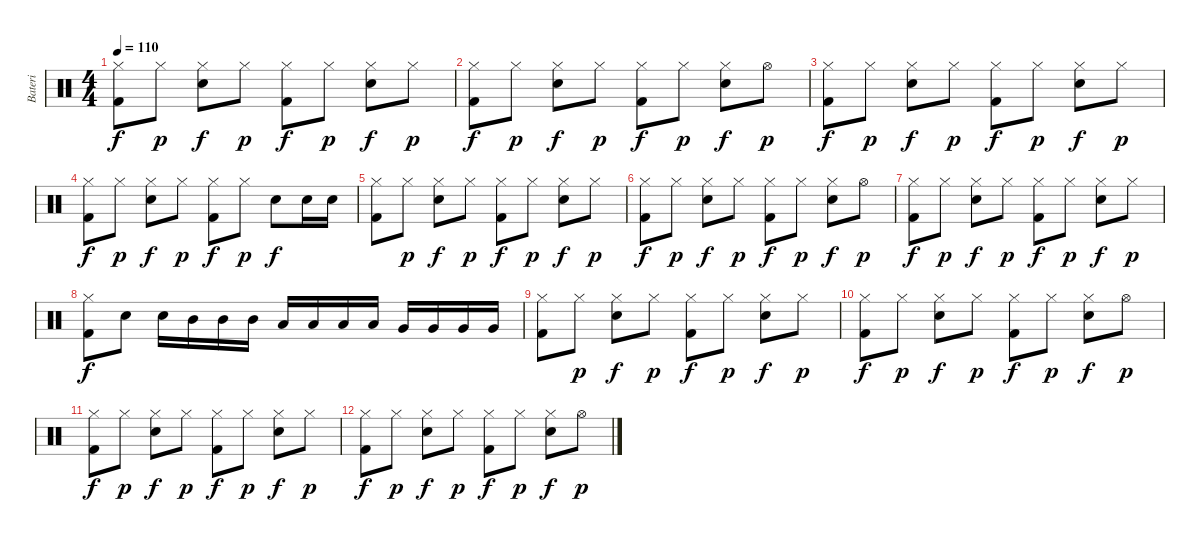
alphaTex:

\track ("Bateri" "Bateri") {instrument percussion}
\staff {score}
\articulation defaults
\ts (4 4)
\tempo 110
\clef neutral
\ks c
("Hi-Hat (closed)" "Kick (hit) 2").8{dy f} "Hi-Hat (closed)".8{dy p} ("Hi-Hat (closed)" "Snare (hit) 2").8{dy f} "Hi-Hat (closed)".8{dy p} ("Hi-Hat (closed)" "Kick (hit) 2").8{dy f} "Hi-Hat (closed)".8{dy p} ("Hi-Hat (closed)" "Snare (hit) 2").8{dy f} "Hi-Hat (closed)".8{dy p} |
("Hi-Hat (closed)" "Kick (hit) 2").8{dy f} "Hi-Hat (closed)".8{dy p} ("Hi-Hat (closed)" "Snare (hit) 2").8{dy f} "Hi-Hat (closed)".8{dy p} ("Hi-Hat (closed)" "Kick (hit) 2").8{dy f} "Hi-Hat (closed)".8{dy p} ("Hi-Hat (closed)" "Snare (hit) 2").8{dy f} "Hi-Hat (open)".8{dy p} |
("Hi-Hat (closed)" "Kick (hit) 2").8{dy f} "Hi-Hat (closed)".8{dy p} ("Hi-Hat (closed)" "Snare (hit) 2").8{dy f} "Hi-Hat (closed)".8{dy p} ("Hi-Hat (closed)" "Kick (hit) 2").8{dy f} "Hi-Hat (closed)".8{dy p} ("Hi-Hat (closed)" "Snare (hit) 2").8{dy f} "Hi-Hat (closed)".8{dy p} |
("Hi-Hat (closed)" "Kick (hit) 2").8{dy f} "Hi-Hat (closed)".8{dy p} ("Hi-Hat (closed)" "Snare (hit) 2").8{dy f} "Hi-Hat (closed)".8{dy p} ("Hi-Hat (closed)" "Kick (hit) 2").8{dy f} "Hi-Hat (closed)".8{dy p} "Snare (hit) 2".8{dy f} "Snare (hit) 2".16 "Snare (hit) 2".16 |
("Hi-Hat (closed)" "Kick (hit) 2").8 "Hi-Hat (closed)".8{dy p} ("Hi-Hat (closed)" "Snare (hit) 2").8{dy f} "Hi-Hat (closed)".8{dy p} ("Hi-Hat (closed)" "Kick (hit) 2").8{dy f} "Hi-Hat (closed)".8{dy p} ("Hi-Hat (closed)" "Snare (hit) 2").8{dy f} "Hi-Hat (closed)".8{dy p} |
("Hi-Hat (closed)" "Kick (hit) 2").8{dy f} "Hi-Hat (closed)".8{dy p} ("Hi-Hat (closed)" "Snare (hit) 2").8{dy f} "Hi-Hat (closed)".8{dy p} ("Hi-Hat (closed)" "Kick (hit) 2").8{dy f} "Hi-Hat (closed)".8{dy p} ("Hi-Hat (closed)" "Snare (hit) 2").8{dy f} "Hi-Hat (open)".8{dy p} |
("Hi-Hat (closed)" "Kick (hit) 2").8{dy f} "Hi-Hat (closed)".8{dy p} ("Hi-Hat (closed)" "Snare (hit) 2").8{dy f} "Hi-Hat (closed)".8{dy p} ("Hi-Hat (closed)" "Kick (hit) 2").8{dy f} "Hi-Hat (closed)".8{dy p} ("Hi-Hat (closed)" "Snare (hit) 2").8{dy f} "Hi-Hat (closed)".8{dy p} |
("Hi-Hat (closed)" "Kick (hit) 2").8{dy f} "Snare (hit) 2".8 "Snare (hit) 2".16 "Mid Tom (hit)".16 "Mid Tom (hit)".16 "Mid Tom (hit)".16 "Low Tom (hit)".16 "Low Tom (hit)".16 "Low Tom (hit)".16 "Low Tom (hit)".16 "Very Low Tom (hit)".16 "Very Low Tom (hit)".16 "Very Low Tom (hit)".16 "Very Low Tom (hit)".16 |
("Hi-Hat (closed)" "Kick (hit) 2").8 "Hi-Hat (closed)".8{dy p} ("Hi-Hat (closed)" "Snare (hit) 2").8{dy f} "Hi-Hat (closed)".8{dy p} ("Hi-Hat (closed)" "Kick (hit) 2").8{dy f} "Hi-Hat (closed)".8{dy p} ("Hi-Hat (closed)" "Snare (hit) 2").8{dy f} "Hi-Hat (closed)".8{dy p} |
("Hi-Hat (closed)" "Kick (hit) 2").8{dy f} "Hi-Hat (closed)".8{dy p} ("Hi-Hat (closed)" "Snare (hit) 2").8{dy f} "Hi-Hat (closed)".8{dy p} ("Hi-Hat (closed)" "Kick (hit) 2").8{dy f} "Hi-Hat (closed)".8{dy p} ("Hi-Hat (closed)" "Snare (hit) 2").8{dy f} "Hi-Hat (open)".8{dy p} |
("Hi-Hat (closed)" "Kick (hit) 2").8{dy f} "Hi-Hat (closed)".8{dy p} ("Hi-Hat (closed)" "Snare (hit) 2").8{dy f} "Hi-Hat (closed)".8{dy p} ("Hi-Hat (closed)" "Kick (hit) 2").8{dy f} "Hi-Hat (closed)".8{dy p} ("Hi-Hat (closed)" "Snare (hit) 2").8{dy f} "Hi-Hat (closed)".8{dy p} |
("Hi-Hat (closed)" "Kick (hit) 2").8{dy f} "Hi-Hat (closed)".8{dy p} ("Hi-Hat (closed)" "Snare (hit) 2").8{dy f} "Hi-Hat (closed)".8{dy p} ("Hi-Hat (closed)" "Kick (hit) 2").8{dy f} "Hi-Hat (closed)".8{dy p} ("Hi-Hat (closed)" "Snare (hit) 2").8{dy f} "Hi-Hat (open)".8{dy p}
